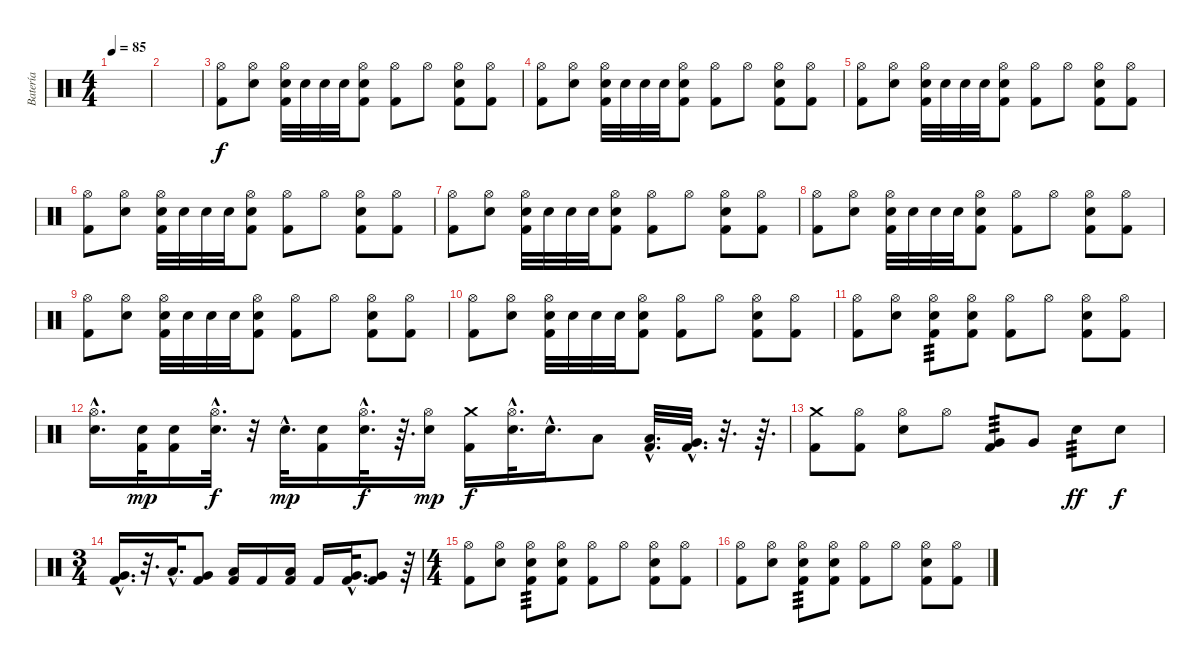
\track ("Batería" "Batería") {instrument percussion}
\staff {score}
\articulation defaults
\ts (4 4)
\tempo 85
\clef neutral
\ks c
|
|
("Hi-Hat (open)" "Kick (hit) 2").8 ("Hi-Hat (open)" "Electric Snare (hit)").8 ("Hi-Hat (open)" "Electric Snare (hit)" "Kick (hit) 2").32 "Electric Snare (hit)".32 "Electric Snare (hit)".32 "Electric Snare (hit)".32 ("Hi-Hat (open)" "Electric Snare (hit)" "Kick (hit) 2").8 ("Hi-Hat (open)" "Kick (hit) 2").8 "Hi-Hat (open)".8 ("Hi-Hat (open)" "Electric Snare (hit)" "Kick (hit) 2").8 ("Hi-Hat (open)" "Kick (hit) 2").8 |
("Hi-Hat (open)" "Kick (hit) 2").8 ("Hi-Hat (open)" "Electric Snare (hit)").8 ("Hi-Hat (open)" "Electric Snare (hit)" "Kick (hit) 2").32 "Electric Snare (hit)".32 "Electric Snare (hit)".32 "Electric Snare (hit)".32 ("Hi-Hat (open)" "Electric Snare (hit)" "Kick (hit) 2").8 ("Hi-Hat (open)" "Kick (hit) 2").8 "Hi-Hat (open)".8 ("Hi-Hat (open)" "Electric Snare (hit)" "Kick (hit) 2").8 ("Hi-Hat (open)" "Kick (hit) 2").8 |
("Hi-Hat (open)" "Kick (hit) 2").8 ("Hi-Hat (open)" "Electric Snare (hit)").8 ("Hi-Hat (open)" "Electric Snare (hit)" "Kick (hit) 2").32 "Electric Snare (hit)".32 "Electric Snare (hit)".32 "Electric Snare (hit)".32 ("Hi-Hat (open)" "Electric Snare (hit)" "Kick (hit) 2").8 ("Hi-Hat (open)" "Kick (hit) 2").8 "Hi-Hat (open)".8 ("Hi-Hat (open)" "Electric Snare (hit)" "Kick (hit) 2").8 ("Hi-Hat (open)" "Kick (hit) 2").8 |
("Hi-Hat (open)" "Kick (hit) 2").8 ("Hi-Hat (open)" "Electric Snare (hit)").8 ("Hi-Hat (open)" "Electric Snare (hit)" "Kick (hit) 2").32 "Electric Snare (hit)".32 "Electric Snare (hit)".32 "Electric Snare (hit)".32 ("Hi-Hat (open)" "Electric Snare (hit)" "Kick (hit) 2").8 ("Hi-Hat (open)" "Kick (hit) 2").8 "Hi-Hat (open)".8 ("Hi-Hat (open)" "Electric Snare (hit)" "Kick (hit) 2").8 ("Hi-Hat (open)" "Kick (hit) 2").8 |
("Hi-Hat (open)" "Kick (hit) 2").8 ("Hi-Hat (open)" "Electric Snare (hit)").8 ("Hi-Hat (open)" "Electric Snare (hit)" "Kick (hit) 2").32 "Electric Snare (hit)".32 "Electric Snare (hit)".32 "Electric Snare (hit)".32 ("Hi-Hat (open)" "Electric Snare (hit)" "Kick (hit) 2").8 ("Hi-Hat (open)" "Kick (hit) 2").8 "Hi-Hat (open)".8 ("Hi-Hat (open)" "Electric Snare (hit)" "Kick (hit) 2").8 ("Hi-Hat (open)" "Kick (hit) 2").8 |
("Hi-Hat (open)" "Kick (hit) 2").8 ("Hi-Hat (open)" "Electric Snare (hit)").8 ("Hi-Hat (open)" "Electric Snare (hit)" "Kick (hit) 2").32 "Electric Snare (hit)".32 "Electric Snare (hit)".32 "Electric Snare (hit)".32 ("Hi-Hat (open)" "Electric Snare (hit)" "Kick (hit) 2").8 ("Hi-Hat (open)" "Kick (hit) 2").8 "Hi-Hat (open)".8 ("Hi-Hat (open)" "Electric Snare (hit)" "Kick (hit) 2").8 ("Hi-Hat (open)" "Kick (hit) 2").8 |
("Hi-Hat (open)" "Kick (hit) 2").8 ("Hi-Hat (open)" "Electric Snare (hit)").8 ("Hi-Hat (open)" "Electric Snare (hit)" "Kick (hit) 2").32 "Electric Snare (hit)".32 "Electric Snare (hit)".32 "Electric Snare (hit)".32 ("Hi-Hat (open)" "Electric Snare (hit)" "Kick (hit) 2").8 ("Hi-Hat (open)" "Kick (hit) 2").8 "Hi-Hat (open)".8 ("Hi-Hat (open)" "Electric Snare (hit)" "Kick (hit) 2").8 ("Hi-Hat (open)" "Kick (hit) 2").8 |
("Hi-Hat (open)" "Kick (hit) 2").8 ("Hi-Hat (open)" "Electric Snare (hit)").8 ("Hi-Hat (open)" "Electric Snare (hit)" "Kick (hit) 2").32 "Electric Snare (hit)".32 "Electric Snare (hit)".32 "Electric Snare (hit)".32 ("Hi-Hat (open)" "Electric Snare (hit)" "Kick (hit) 2").8 ("Hi-Hat (open)" "Kick (hit) 2").8 "Hi-Hat (open)".8 ("Hi-Hat (open)" "Electric Snare (hit)" "Kick (hit) 2").8 ("Hi-Hat (open)" "Kick (hit) 2").8 |
("Hi-Hat (open)" "Kick (hit) 2").8 ("Hi-Hat (open)" "Electric Snare (hit)").8 ("Hi-Hat (open)" "Electric Snare (hit)" "Kick (hit) 2").8{tp 3} ("Hi-Hat (open)" "Electric Snare (hit)" "Kick (hit) 2").8 ("Hi-Hat (open)" "Kick (hit) 2").8 "Hi-Hat (open)".8 ("Hi-Hat (open)" "Electric Snare (hit)" "Kick (hit) 2").8 ("Hi-Hat (open)" "Kick (hit) 2").8 |
("Hi-Hat (open)"{hac} "Electric Snare (hit)"{hac}).16{d} ("Kick (hit) 2" "Electric Snare (hit)").32{dy mp} ("Kick (hit) 2" "Electric Snare (hit)").16 ("Hi-Hat (open)"{hac} "Electric Snare (hit)"{hac}).32{d dy f} r.32 "Electric Snare (hit)"{hac}.32{d dy mp} ("Kick (hit) 2" "Electric Snare (hit)").16 ("Hi-Hat (open)"{hac} "Electric Snare (hit)"{hac}).32{d dy f} r.64{d} ("Hi-Hat (open)" "Electric Snare (hit)").16{dy mp} ("Crash medium (hit)" "Kick (hit) 2").16{dy f} ("Hi-Hat (open)"{hac} "Electric Snare (hit)"{hac}).32{d} "Electric Snare (hit)"{hac}.16{d} "Low Tom (hit)".8 ("Low Tom (hit)"{hac} "Kick (hit) 2"{hac}).32{d} ("Very Low Tom (hit)"{hac} "Kick (hit) 2"{hac}).32{d} r.32{d} r.64{d} |
("Kick (hit) 2" "Crash medium (hit)").8 ("Kick (hit) 2" "Hi-Hat (open)").8 ("Hi-Hat (open)" "Electric Snare (hit)").8 "Hi-Hat (open)".8 ("Kick (hit) 2" "Very Low Tom (hit)").8{tp 3} "Very Low Tom (hit)".8 "Electric Snare (hit)".8{tp 3 dy ff} "Electric Snare (hit)".8{dy f} |
\ts (3 4)
("Kick (hit) 2"{hac} "Very Low Tom (hit)"{hac}).16{d} r.32{d} "Low Floor Tom (hit)"{hac}.32{d} ("Kick (hit) 2" "Very Low Tom (hit)").8 ("Kick (hit) 2" "Low Floor Tom (hit)").16 "Kick (hit) 2".16 ("Kick (hit) 2" "Low Floor Tom (hit)").16 "Kick (hit) 2".16 ("Kick (hit) 2"{hac} "Very Low Tom (hit)"{hac}).32{d} ("Kick (hit) 2" "Very Low Tom (hit)").8 r.64 |
\ts (4 4)
("Hi-Hat (open)" "Kick (hit) 2").8 ("Hi-Hat (open)" "Electric Snare (hit)").8 ("Hi-Hat (open)" "Electric Snare (hit)" "Kick (hit) 2").8{tp 3} ("Hi-Hat (open)" "Electric Snare (hit)" "Kick (hit) 2").8 ("Hi-Hat (open)" "Kick (hit) 2").8 "Hi-Hat (open)".8 ("Hi-Hat (open)" "Electric Snare (hit)" "Kick (hit) 2").8 ("Hi-Hat (open)" "Kick (hit) 2").8 |
("Hi-Hat (open)" "Kick (hit) 2").8 ("Hi-Hat (open)" "Electric Snare (hit)").8 ("Hi-Hat (open)" "Electric Snare (hit)" "Kick (hit) 2").8{tp 3} ("Hi-Hat (open)" "Electric Snare (hit)" "Kick (hit) 2").8 ("Hi-Hat (open)" "Kick (hit) 2").8 "Hi-Hat (open)".8 ("Hi-Hat (open)" "Electric Snare (hit)" "Kick (hit) 2").8 ("Hi-Hat (open)" "Kick (hit) 2").8
